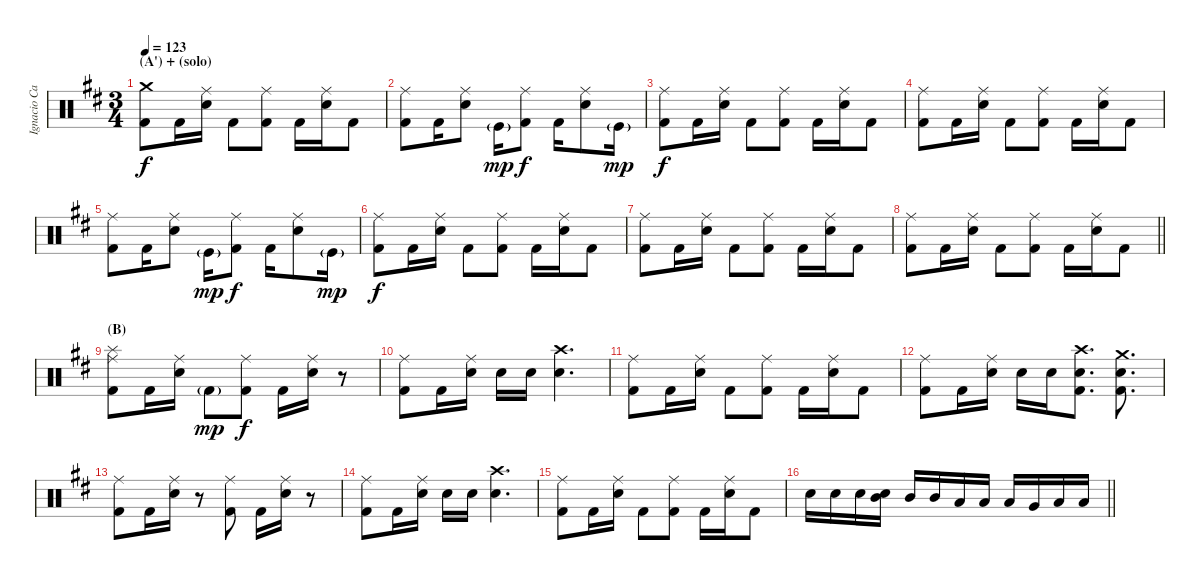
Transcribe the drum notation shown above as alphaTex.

\track ("Ignacio Cantera - Batería" "Ignacio Ca") {instrument percussion}
\staff {score}
\articulation defaults
\ts (3 4)
\section ("" "(A') + (solo)   ")
\tempo 123
\clef neutral
\ks bminor
("Crash medium (hit)" "Kick (hit) 2").8{dy f} "Kick (hit) 2".16 ("Ride (middle)" "Snare (hit) 2").16 "Kick (hit) 2".8 ("Ride (middle)" "Kick (hit) 2").8 "Kick (hit) 2".16 ("Ride (middle)" "Snare (hit) 2").16 "Kick (hit) 2".8 |
("Ride (middle)" "Kick (hit) 2").8 "Kick (hit) 2".16 ("Ride (middle)" "Snare (hit) 2").8 "Kick (hit)"{g}.16{dy mp} ("Ride (middle)" "Kick (hit) 2").8{dy f} "Kick (hit) 2".16 ("Ride (middle)" "Snare (hit) 2").8 "Kick (hit)"{g}.16{dy mp} |
("Ride (middle)" "Kick (hit) 2").8{dy f} "Kick (hit) 2".16 ("Ride (middle)" "Snare (hit) 2").16 "Kick (hit) 2".8 ("Ride (middle)" "Kick (hit) 2").8 "Kick (hit) 2".16 ("Ride (middle)" "Snare (hit) 2").16 "Kick (hit) 2".8 |
("Ride (middle)" "Kick (hit) 2").8 "Kick (hit) 2".16 ("Ride (middle)" "Snare (hit) 2").16 "Kick (hit) 2".8 ("Ride (middle)" "Kick (hit) 2").8 "Kick (hit) 2".16 ("Ride (middle)" "Snare (hit) 2").16 "Kick (hit) 2".8 |
("Ride (middle)" "Kick (hit) 2").8 "Kick (hit) 2".16 ("Ride (middle)" "Snare (hit) 2").8 "Kick (hit)"{g}.16{dy mp} ("Ride (middle)" "Kick (hit) 2").8{dy f} "Kick (hit) 2".16 ("Ride (middle)" "Snare (hit) 2").8 "Kick (hit)"{g}.16{dy mp} |
("Ride (middle)" "Kick (hit) 2").8{dy f} "Kick (hit) 2".16 ("Ride (middle)" "Snare (hit) 2").16 "Kick (hit) 2".8 ("Ride (middle)" "Kick (hit) 2").8 "Kick (hit) 2".16 ("Ride (middle)" "Snare (hit) 2").16 "Kick (hit) 2".8 |
("Ride (middle)" "Kick (hit) 2").8 "Kick (hit) 2".16 ("Ride (middle)" "Snare (hit) 2").16 "Kick (hit) 2".8 ("Ride (middle)" "Kick (hit) 2").8 "Kick (hit) 2".16 ("Ride (middle)" "Snare (hit) 2").16 "Kick (hit) 2".8 |
\barLineRight lightlight
("Ride (middle)" "Kick (hit) 2").8 "Kick (hit) 2".16 ("Ride (middle)" "Snare (hit) 2").16 "Kick (hit) 2".8 ("Ride (middle)" "Kick (hit) 2").8 "Kick (hit) 2".16 ("Ride (middle)" "Snare (hit) 2").16 "Kick (hit) 2".8 |
\section ("" "(B)")
("Splash (hit)" "Ride (middle)" "Kick (hit) 2").8 "Kick (hit) 2".16 ("Ride (middle)" "Snare (hit) 2").16 "Kick (hit) 2"{g}.8{dy mp} ("Ride (middle)" "Kick (hit) 2").8{dy f} "Kick (hit) 2".16 ("Ride (middle)" "Snare (hit) 2").16 r.8 |
("Ride (middle)" "Kick (hit) 2").8 "Kick (hit) 2".16 ("Ride (middle)" "Electric Snare (hit)").16 "Electric Snare (hit)".16 "Electric Snare (hit)".16 ("Crash high (hit)" "Snare (hit) 2").4{d} |
("Ride (middle)" "Kick (hit) 2").8 "Kick (hit) 2".16 ("Ride (middle)" "Snare (hit) 2").16 "Kick (hit) 2".8 ("Ride (middle)" "Kick (hit) 2").8 "Kick (hit) 2".16 ("Ride (middle)" "Snare (hit) 2").16 "Kick (hit) 2".8 |
("Ride (middle)" "Kick (hit) 2").8 "Kick (hit) 2".16 ("Ride (middle)" "Electric Snare (hit)").16 "Electric Snare (hit)".16 "Electric Snare (hit)".16 ("Crash high (hit)" "Snare (hit) 2" "Kick (hit) 2").8{d} ("Crash medium (hit)" "Snare (hit) 2" "Kick (hit) 2").8{d} |
("Ride (middle)" "Kick (hit) 2").8 "Kick (hit) 2".16 ("Ride (middle)" "Snare (hit) 2").16 r.8 ("Ride (middle)" "Kick (hit) 2").8 "Kick (hit) 2".16 ("Ride (middle)" "Snare (hit) 2").16 r.8 |
("Ride (middle)" "Kick (hit) 2").8 "Kick (hit) 2".16 ("Ride (middle)" "Electric Snare (hit)").16 "Electric Snare (hit)".16 "Electric Snare (hit)".16 ("Crash high (hit)" "Snare (hit) 2").4{d} |
("Ride (middle)" "Kick (hit) 2").8 "Kick (hit) 2".16 ("Ride (middle)" "Snare (hit) 2").16 "Kick (hit) 2".8 ("Ride (middle)" "Kick (hit) 2").8 "Kick (hit) 2".16 ("Ride (middle)" "Snare (hit) 2").16 "Kick (hit) 2".8 |
\barLineRight lightlight "Electric Snare (hit)".16 "Electric Snare (hit)".16 "Electric Snare (hit)".16
("Mid Tom (hit)" "Snare (hit) 2").16 "Mid Tom (hit)".16 "Mid Tom (hit)".16 "Low Tom (hit)".16 "Low Tom (hit)".16 "Low Tom (hit)".16 "Very Low Tom (hit)".16 "Low Floor Tom (hit)".16 "Low Floor Tom (hit)".16
